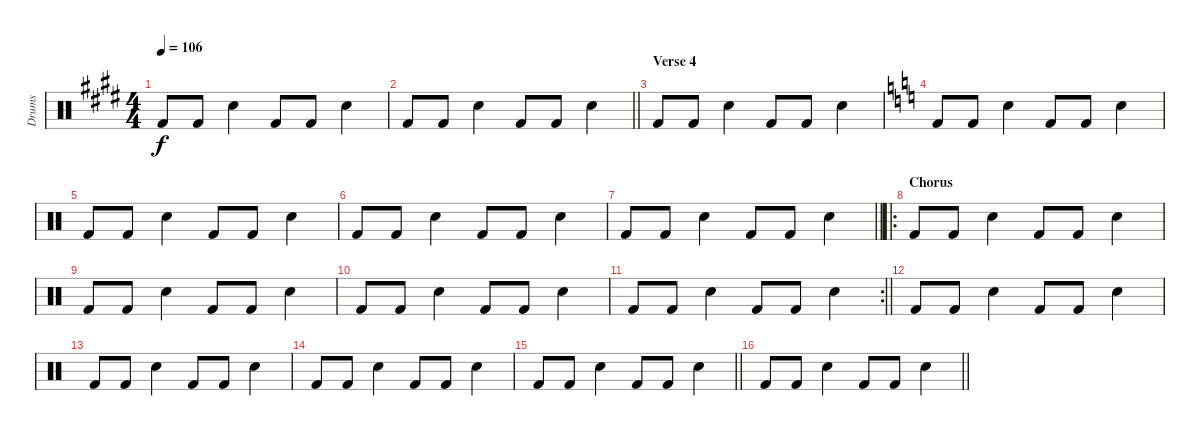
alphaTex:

\track ("Drums" "Drums") {instrument percussion}
\staff {score}
\articulation defaults
\ts (4 4)
\tempo 106
\clef neutral
\ks e "Kick (hit) 2".8{dy f} "Kick (hit) 2".8 "Snare (hit) 2".4 "Kick (hit) 2".8 "Kick (hit) 2".8 "Snare (hit) 2".4
|
\barLineRight lightlight "Kick (hit) 2".8 "Kick (hit) 2".8 "Snare (hit) 2".4 "Kick (hit) 2".8 "Kick (hit) 2".8 "Snare (hit) 2".4
|
\section ("" "Verse 4")
"Kick (hit) 2".8 "Kick (hit) 2".8 "Snare (hit) 2".4 "Kick (hit) 2".8 "Kick (hit) 2".8 "Snare (hit) 2".4 |
\ks c "Kick (hit) 2".8 "Kick (hit) 2".8 "Snare (hit) 2".4 "Kick (hit) 2".8 "Kick (hit) 2".8 "Snare (hit) 2".4
|
"Kick (hit) 2".8 "Kick (hit) 2".8 "Snare (hit) 2".4 "Kick (hit) 2".8 "Kick (hit) 2".8 "Snare (hit) 2".4 |
"Kick (hit) 2".8 "Kick (hit) 2".8 "Snare (hit) 2".4 "Kick (hit) 2".8 "Kick (hit) 2".8 "Snare (hit) 2".4 |
\barLineRight lightlight "Kick (hit) 2".8 "Kick (hit) 2".8 "Snare (hit) 2".4 "Kick (hit) 2".8 "Kick (hit) 2".8 "Snare (hit) 2".4
|
\ro
\section ("" "Chorus")
"Kick (hit) 2".8 "Kick (hit) 2".8 "Snare (hit) 2".4 "Kick (hit) 2".8 "Kick (hit) 2".8 "Snare (hit) 2".4 |
"Kick (hit) 2".8 "Kick (hit) 2".8 "Snare (hit) 2".4 "Kick (hit) 2".8 "Kick (hit) 2".8 "Snare (hit) 2".4 |
"Kick (hit) 2".8 "Kick (hit) 2".8 "Snare (hit) 2".4 "Kick (hit) 2".8 "Kick (hit) 2".8 "Snare (hit) 2".4 |
\rc 2
\barLineRight lightlight "Kick (hit) 2".8 "Kick (hit) 2".8 "Snare (hit) 2".4 "Kick (hit) 2".8 "Kick (hit) 2".8 "Snare (hit) 2".4
|
"Kick (hit) 2".8 "Kick (hit) 2".8 "Snare (hit) 2".4 "Kick (hit) 2".8 "Kick (hit) 2".8 "Snare (hit) 2".4 |
"Kick (hit) 2".8 "Kick (hit) 2".8 "Snare (hit) 2".4 "Kick (hit) 2".8 "Kick (hit) 2".8 "Snare (hit) 2".4 |
"Kick (hit) 2".8 "Kick (hit) 2".8 "Snare (hit) 2".4 "Kick (hit) 2".8 "Kick (hit) 2".8 "Snare (hit) 2".4 |
\barLineRight lightlight "Kick (hit) 2".8 "Kick (hit) 2".8 "Snare (hit) 2".4 "Kick (hit) 2".8 "Kick (hit) 2".8 "Snare (hit) 2".4
|
\barLineRight lightlight "Kick (hit) 2".8 "Kick (hit) 2".8 "Snare (hit) 2".4 "Kick (hit) 2".8 "Kick (hit) 2".8 "Snare (hit) 2".4
